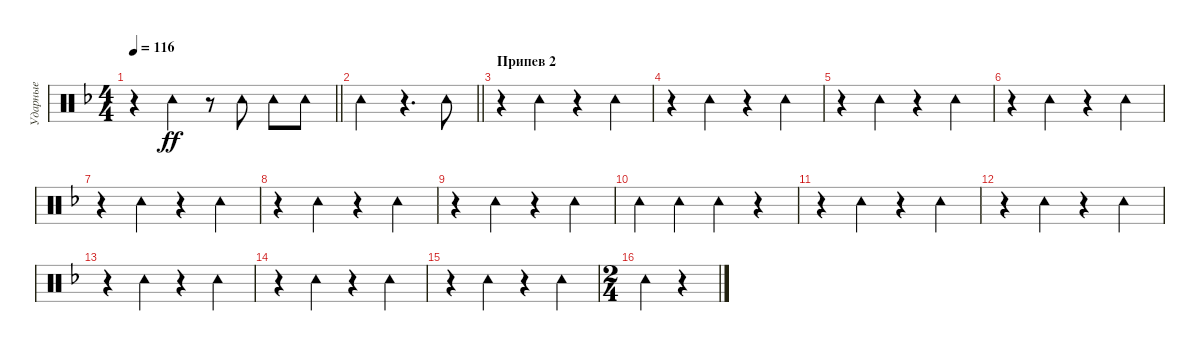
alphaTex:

\track ("Ударные" "Ударные") {instrument percussion}
\staff {score}
\articulation defaults
\ts (4 4)
\tempo 116
\clef neutral
\barLineRight lightlight
\ks dminor
r.4{dy ff} "Tambourine (hit)".4 r.8 "Tambourine (hit)".8 "Tambourine (hit)".8 "Tambourine (hit)".8 |
\barLineRight lightlight "Tambourine (hit)".2
r.4{d} "Tambourine (hit)".8 |
\section ("" "Припев 2")
r.4 "Tambourine (hit)".4 r.4 "Tambourine (hit)".4 |
r.4 "Tambourine (hit)".4 r.4 "Tambourine (hit)".4 |
r.4 "Tambourine (hit)".4 r.4 "Tambourine (hit)".4 |
r.4 "Tambourine (hit)".4 r.4 "Tambourine (hit)".4 |
r.4 "Tambourine (hit)".4 r.4 "Tambourine (hit)".4 |
r.4 "Tambourine (hit)".4 r.4 "Tambourine (hit)".4 |
r.4 "Tambourine (hit)".4 r.4 "Tambourine (hit)".4 |
"Tambourine (hit)".4 "Tambourine (hit)".4 "Tambourine (hit)".4 r.4 |
r.4 "Tambourine (hit)".4 r.4 "Tambourine (hit)".4 |
r.4 "Tambourine (hit)".4 r.4 "Tambourine (hit)".4 |
r.4 "Tambourine (hit)".4 r.4 "Tambourine (hit)".4 |
r.4 "Tambourine (hit)".4 r.4 "Tambourine (hit)".4 |
r.4 "Tambourine (hit)".4 r.4 "Tambourine (hit)".4 |
\ts (2 4)
"Tambourine (hit)".4 r.4
